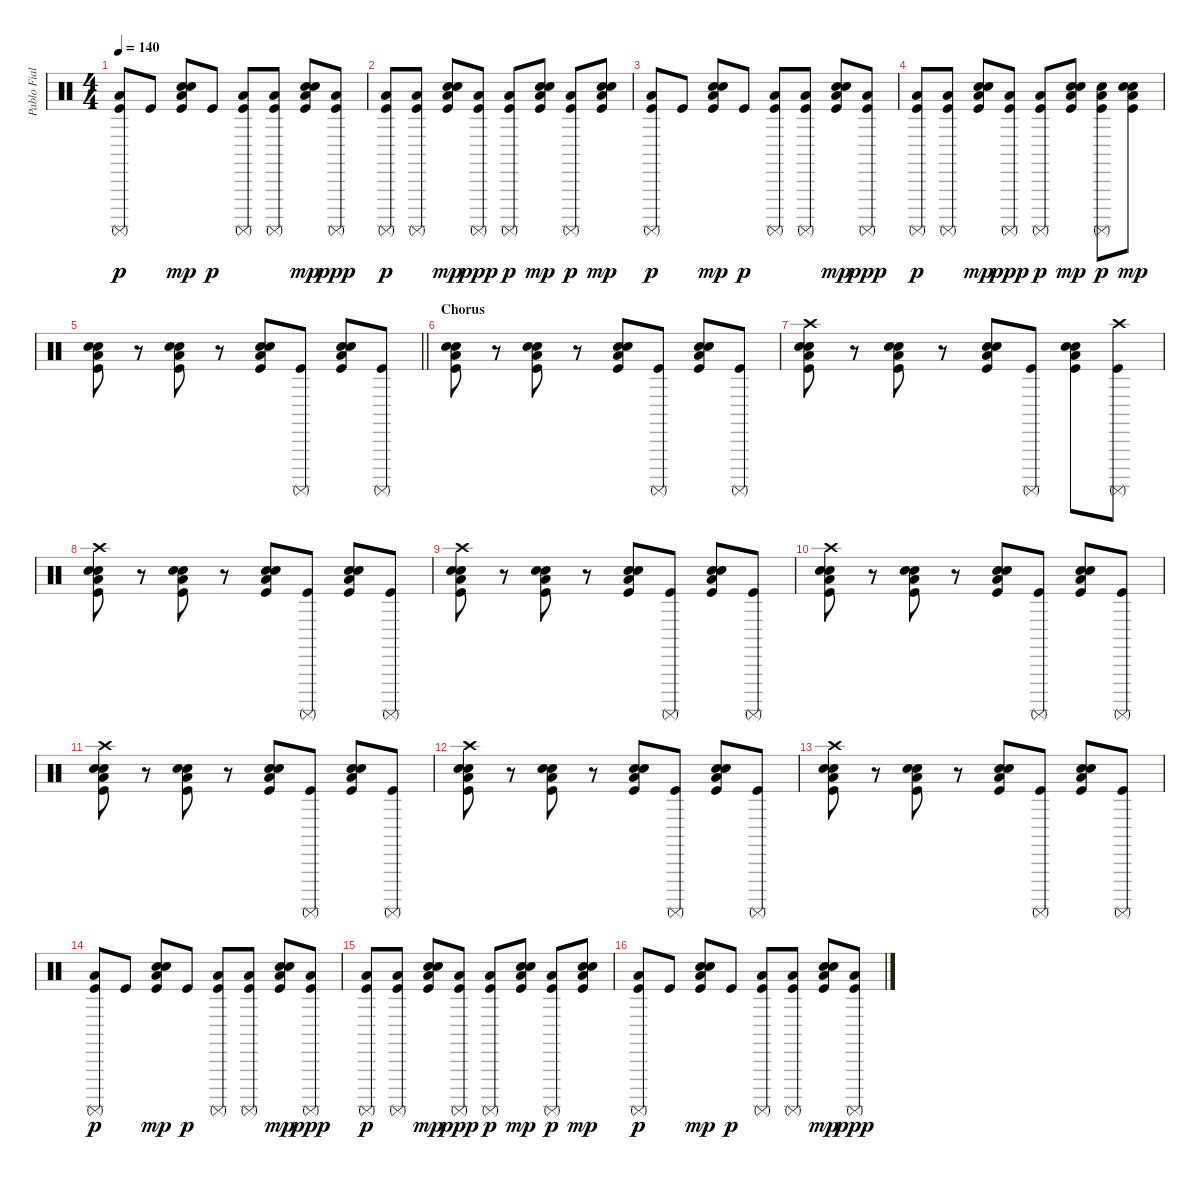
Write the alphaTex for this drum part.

\track ("Pablo Fiallo" "Pablo Fial") {instrument percussion}
\staff {score}
\articulation defaults
\ts (4 4)
\tempo 140
\clef neutral
\ks c
("Low Floor Tom (hit)" "Kick (hit)" "Surdo (mute)").8{dy p} "Kick (hit)".8 ("Low Floor Tom (hit)" "Electric Snare (hit)" "Kick (hit)" "Snare (hit) 2").8{dy mp} "Kick (hit)".8{dy p} ("Low Floor Tom (hit)" "Kick (hit)" "Surdo (mute)").8 ("Low Floor Tom (hit)" "Kick (hit)" "Surdo (mute)").8 ("Low Floor Tom (hit)" "Electric Snare (hit)" "Kick (hit)" "Snare (hit) 2").8{dy mp} ("Low Floor Tom (hit)" "Kick (hit)" "Surdo (mute)").8{dy ppp} |
("Low Floor Tom (hit)" "Kick (hit)" "Surdo (mute)").8{dy p} ("Low Floor Tom (hit)" "Kick (hit)" "Surdo (mute)").8 ("Low Floor Tom (hit)" "Electric Snare (hit)" "Kick (hit)" "Snare (hit) 2").8{dy mp} ("Low Floor Tom (hit)" "Kick (hit)" "Surdo (mute)").8{dy ppp} ("Low Floor Tom (hit)" "Kick (hit)" "Surdo (mute)").8{dy p} ("Low Floor Tom (hit)" "Electric Snare (hit)" "Kick (hit)" "Snare (hit) 2").8{dy mp} ("Low Floor Tom (hit)" "Kick (hit)" "Surdo (mute)").8{dy p} ("Low Floor Tom (hit)" "Electric Snare (hit)" "Kick (hit)" "Snare (hit) 2").8{dy mp} |
("Low Floor Tom (hit)" "Kick (hit)" "Surdo (mute)").8{dy p} "Kick (hit)".8 ("Low Floor Tom (hit)" "Electric Snare (hit)" "Kick (hit)" "Snare (hit) 2").8{dy mp} "Kick (hit)".8{dy p} ("Low Floor Tom (hit)" "Kick (hit)" "Surdo (mute)").8 ("Low Floor Tom (hit)" "Kick (hit)" "Surdo (mute)").8 ("Low Floor Tom (hit)" "Electric Snare (hit)" "Kick (hit)" "Snare (hit) 2").8{dy mp} ("Low Floor Tom (hit)" "Kick (hit)" "Surdo (mute)").8{dy ppp} |
("Low Floor Tom (hit)" "Kick (hit)" "Surdo (mute)").8{dy p} ("Low Floor Tom (hit)" "Kick (hit)" "Surdo (mute)").8 ("Low Floor Tom (hit)" "Electric Snare (hit)" "Kick (hit)" "Snare (hit) 2").8{dy mp} ("Low Floor Tom (hit)" "Kick (hit)" "Surdo (mute)").8{dy ppp} ("Low Floor Tom (hit)" "Kick (hit)" "Surdo (mute)").8{dy p} ("Low Floor Tom (hit)" "Electric Snare (hit)" "Kick (hit)" "Snare (hit) 2").8{dy mp} ("Low Floor Tom (hit)" "Electric Snare (hit)" "Kick (hit)" "Surdo (mute)").8{dy p} ("Low Floor Tom (hit)" "Electric Snare (hit)" "Kick (hit)" "Snare (hit) 2").8{dy mp} |
\barLineRight lightlight
("Low Floor Tom (hit)" "Electric Snare (hit)" "Kick (hit)" "Snare (hit) 2").8 r.8 ("Low Floor Tom (hit)" "Electric Snare (hit)" "Kick (hit)" "Snare (hit) 2").8 r.8 ("Low Floor Tom (hit)" "Electric Snare (hit)" "Kick (hit)" "Snare (hit) 2").8 ("Kick (hit)" "Surdo (mute)").8 ("Low Floor Tom (hit)" "Electric Snare (hit)" "Kick (hit)" "Snare (hit) 2").8 ("Kick (hit)" "Surdo (mute)").8 |
\section ("" "Chorus")
("Low Floor Tom (hit)" "Electric Snare (hit)" "Kick (hit)" "Snare (hit) 2").8 r.8 ("Low Floor Tom (hit)" "Electric Snare (hit)" "Kick (hit)" "Snare (hit) 2").8 r.8 ("Low Floor Tom (hit)" "Electric Snare (hit)" "Kick (hit)" "Snare (hit) 2").8 ("Kick (hit)" "Surdo (mute)").8 ("Low Floor Tom (hit)" "Electric Snare (hit)" "Kick (hit)" "Snare (hit) 2").8 ("Kick (hit)" "Surdo (mute)").8 |
("Low Floor Tom (hit)" "Electric Snare (hit)" "Crash high (hit)" "Kick (hit)" "Snare (hit) 2").8 r.8 ("Low Floor Tom (hit)" "Electric Snare (hit)" "Kick (hit)" "Snare (hit) 2").8 r.8 ("Low Floor Tom (hit)" "Electric Snare (hit)" "Kick (hit)" "Snare (hit) 2").8 ("Kick (hit)" "Surdo (mute)").8 ("Low Floor Tom (hit)" "Electric Snare (hit)" "Kick (hit)" "Snare (hit) 2").8 ("Crash high (hit)" "Kick (hit)" "Surdo (mute)").8 |
("Low Floor Tom (hit)" "Electric Snare (hit)" "Crash high (hit)" "Kick (hit)" "Snare (hit) 2").8 r.8 ("Low Floor Tom (hit)" "Electric Snare (hit)" "Kick (hit)" "Snare (hit) 2").8 r.8 ("Low Floor Tom (hit)" "Electric Snare (hit)" "Kick (hit)" "Snare (hit) 2").8 ("Kick (hit)" "Surdo (mute)").8 ("Low Floor Tom (hit)" "Electric Snare (hit)" "Kick (hit)" "Snare (hit) 2").8 ("Kick (hit)" "Surdo (mute)").8 |
("Low Floor Tom (hit)" "Electric Snare (hit)" "Crash high (hit)" "Kick (hit)" "Snare (hit) 2").8 r.8 ("Low Floor Tom (hit)" "Electric Snare (hit)" "Kick (hit)" "Snare (hit) 2").8 r.8 ("Low Floor Tom (hit)" "Electric Snare (hit)" "Kick (hit)" "Snare (hit) 2").8 ("Kick (hit)" "Surdo (mute)").8 ("Low Floor Tom (hit)" "Electric Snare (hit)" "Kick (hit)" "Snare (hit) 2").8 ("Kick (hit)" "Surdo (mute)").8 |
("Low Floor Tom (hit)" "Electric Snare (hit)" "Crash high (hit)" "Kick (hit)" "Snare (hit) 2").8 r.8 ("Low Floor Tom (hit)" "Electric Snare (hit)" "Kick (hit)" "Snare (hit) 2").8 r.8 ("Low Floor Tom (hit)" "Electric Snare (hit)" "Kick (hit)" "Snare (hit) 2").8 ("Kick (hit)" "Surdo (mute)").8 ("Low Floor Tom (hit)" "Electric Snare (hit)" "Kick (hit)" "Snare (hit) 2").8 ("Kick (hit)" "Surdo (mute)").8 |
("Low Floor Tom (hit)" "Electric Snare (hit)" "Crash high (hit)" "Kick (hit)" "Snare (hit) 2").8 r.8 ("Low Floor Tom (hit)" "Electric Snare (hit)" "Kick (hit)" "Snare (hit) 2").8 r.8 ("Low Floor Tom (hit)" "Electric Snare (hit)" "Kick (hit)" "Snare (hit) 2").8 ("Kick (hit)" "Surdo (mute)").8 ("Low Floor Tom (hit)" "Electric Snare (hit)" "Kick (hit)" "Snare (hit) 2").8 ("Kick (hit)" "Surdo (mute)").8 |
("Low Floor Tom (hit)" "Electric Snare (hit)" "Crash high (hit)" "Kick (hit)" "Snare (hit) 2").8 r.8 ("Low Floor Tom (hit)" "Electric Snare (hit)" "Kick (hit)" "Snare (hit) 2").8 r.8 ("Low Floor Tom (hit)" "Electric Snare (hit)" "Kick (hit)" "Snare (hit) 2").8 ("Kick (hit)" "Surdo (mute)").8 ("Low Floor Tom (hit)" "Electric Snare (hit)" "Kick (hit)" "Snare (hit) 2").8 ("Kick (hit)" "Surdo (mute)").8 |
("Low Floor Tom (hit)" "Electric Snare (hit)" "Crash high (hit)" "Kick (hit)" "Snare (hit) 2").8 r.8 ("Low Floor Tom (hit)" "Electric Snare (hit)" "Kick (hit)" "Snare (hit) 2").8 r.8 ("Low Floor Tom (hit)" "Electric Snare (hit)" "Kick (hit)" "Snare (hit) 2").8 ("Kick (hit)" "Surdo (mute)").8 ("Low Floor Tom (hit)" "Electric Snare (hit)" "Kick (hit)" "Snare (hit) 2").8 ("Kick (hit)" "Surdo (mute)").8 |
("Low Floor Tom (hit)" "Kick (hit)" "Surdo (mute)").8{dy p} "Kick (hit)".8 ("Low Floor Tom (hit)" "Electric Snare (hit)" "Kick (hit)" "Snare (hit) 2").8{dy mp} "Kick (hit)".8{dy p} ("Low Floor Tom (hit)" "Kick (hit)" "Surdo (mute)").8 ("Low Floor Tom (hit)" "Kick (hit)" "Surdo (mute)").8 ("Low Floor Tom (hit)" "Electric Snare (hit)" "Kick (hit)" "Snare (hit) 2").8{dy mp} ("Low Floor Tom (hit)" "Kick (hit)" "Surdo (mute)").8{dy ppp} |
("Low Floor Tom (hit)" "Kick (hit)" "Surdo (mute)").8{dy p} ("Low Floor Tom (hit)" "Kick (hit)" "Surdo (mute)").8 ("Low Floor Tom (hit)" "Electric Snare (hit)" "Kick (hit)" "Snare (hit) 2").8{dy mp} ("Low Floor Tom (hit)" "Kick (hit)" "Surdo (mute)").8{dy ppp} ("Low Floor Tom (hit)" "Kick (hit)" "Surdo (mute)").8{dy p} ("Low Floor Tom (hit)" "Electric Snare (hit)" "Kick (hit)" "Snare (hit) 2").8{dy mp} ("Low Floor Tom (hit)" "Kick (hit)" "Surdo (mute)").8{dy p} ("Low Floor Tom (hit)" "Electric Snare (hit)" "Kick (hit)" "Snare (hit) 2").8{dy mp} |
("Low Floor Tom (hit)" "Kick (hit)" "Surdo (mute)").8{dy p} "Kick (hit)".8 ("Low Floor Tom (hit)" "Electric Snare (hit)" "Kick (hit)" "Snare (hit) 2").8{dy mp} "Kick (hit)".8{dy p} ("Low Floor Tom (hit)" "Kick (hit)" "Surdo (mute)").8 ("Low Floor Tom (hit)" "Kick (hit)" "Surdo (mute)").8 ("Low Floor Tom (hit)" "Electric Snare (hit)" "Kick (hit)" "Snare (hit) 2").8{dy mp} ("Low Floor Tom (hit)" "Kick (hit)" "Surdo (mute)").8{dy ppp}
